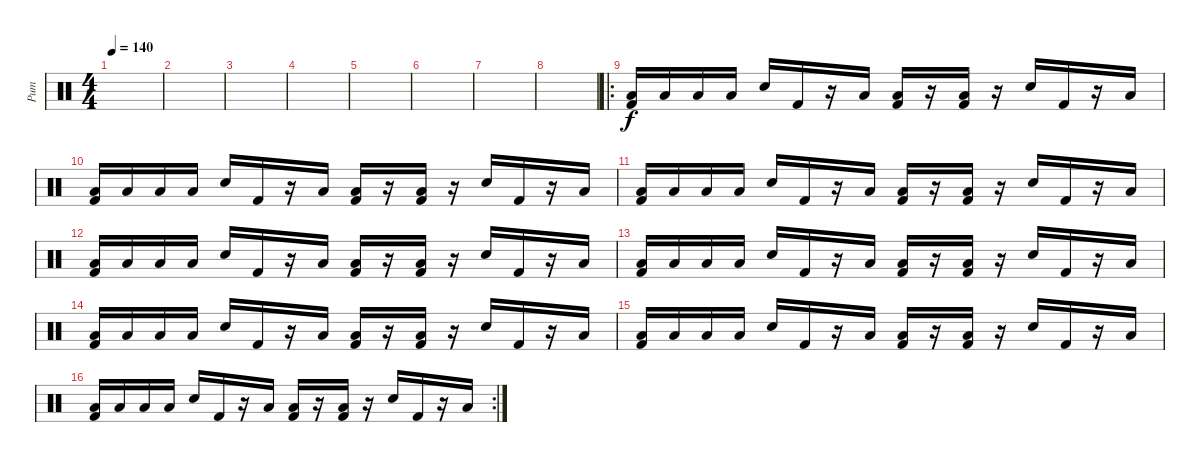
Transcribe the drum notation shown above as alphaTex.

\track ("Рит" "Рит") {instrument percussion}
\staff {score}
\articulation defaults
\ts (4 4)
\tempo 140
\clef neutral
\ks c
|
|
|
|
|
|
|
|
\ro
("Low Floor Tom (hit)" "Kick (hit) 2").16{volume 12} "Low Floor Tom (hit)".16 "Low Floor Tom (hit)".16 "Low Floor Tom (hit)".16 "Snare (hit) 2".16 "Kick (hit) 2".16 r.16 "Low Tom (hit)".16 ("Low Floor Tom (hit)" "Kick (hit) 2").16 r.16 ("Low Floor Tom (hit)" "Kick (hit) 2").16 r.16 "Snare (hit) 2".16 "Kick (hit) 2".16 r.16 "Low Tom (hit)".16 |
("Low Floor Tom (hit)" "Kick (hit) 2").16 "Low Floor Tom (hit)".16 "Low Floor Tom (hit)".16 "Low Floor Tom (hit)".16 "Snare (hit) 2".16 "Kick (hit) 2".16 r.16 "Low Tom (hit)".16 ("Low Floor Tom (hit)" "Kick (hit) 2").16 r.16 ("Low Floor Tom (hit)" "Kick (hit) 2").16 r.16 "Snare (hit) 2".16 "Kick (hit) 2".16 r.16 "Low Tom (hit)".16 |
("Low Floor Tom (hit)" "Kick (hit) 2").16 "Low Floor Tom (hit)".16 "Low Floor Tom (hit)".16 "Low Floor Tom (hit)".16 "Snare (hit) 2".16 "Kick (hit) 2".16 r.16 "Low Tom (hit)".16 ("Low Floor Tom (hit)" "Kick (hit) 2").16 r.16 ("Low Floor Tom (hit)" "Kick (hit) 2").16 r.16 "Snare (hit) 2".16 "Kick (hit) 2".16 r.16 "Low Tom (hit)".16 |
("Low Floor Tom (hit)" "Kick (hit) 2").16 "Low Floor Tom (hit)".16 "Low Floor Tom (hit)".16 "Low Floor Tom (hit)".16 "Snare (hit) 2".16 "Kick (hit) 2".16 r.16 "Low Tom (hit)".16 ("Low Floor Tom (hit)" "Kick (hit) 2").16 r.16 ("Low Floor Tom (hit)" "Kick (hit) 2").16 r.16 "Snare (hit) 2".16 "Kick (hit) 2".16 r.16 "Low Tom (hit)".16 |
("Low Floor Tom (hit)" "Kick (hit) 2").16 "Low Floor Tom (hit)".16 "Low Floor Tom (hit)".16 "Low Floor Tom (hit)".16 "Snare (hit) 2".16 "Kick (hit) 2".16 r.16 "Low Tom (hit)".16 ("Low Floor Tom (hit)" "Kick (hit) 2").16 r.16 ("Low Floor Tom (hit)" "Kick (hit) 2").16 r.16 "Snare (hit) 2".16 "Kick (hit) 2".16 r.16 "Low Tom (hit)".16 |
("Low Floor Tom (hit)" "Kick (hit) 2").16 "Low Floor Tom (hit)".16 "Low Floor Tom (hit)".16 "Low Floor Tom (hit)".16 "Snare (hit) 2".16 "Kick (hit) 2".16 r.16 "Low Tom (hit)".16 ("Low Floor Tom (hit)" "Kick (hit) 2").16 r.16 ("Low Floor Tom (hit)" "Kick (hit) 2").16 r.16 "Snare (hit) 2".16 "Kick (hit) 2".16 r.16 "Low Tom (hit)".16 |
("Low Floor Tom (hit)" "Kick (hit) 2").16 "Low Floor Tom (hit)".16 "Low Floor Tom (hit)".16 "Low Floor Tom (hit)".16 "Snare (hit) 2".16 "Kick (hit) 2".16 r.16 "Low Tom (hit)".16 ("Low Floor Tom (hit)" "Kick (hit) 2").16 r.16 ("Low Floor Tom (hit)" "Kick (hit) 2").16 r.16 "Snare (hit) 2".16 "Kick (hit) 2".16 r.16 "Low Tom (hit)".16 |
\rc 2
("Low Floor Tom (hit)" "Kick (hit) 2").16 "Low Floor Tom (hit)".16 "Low Floor Tom (hit)".16 "Low Floor Tom (hit)".16 "Snare (hit) 2".16 "Kick (hit) 2".16 r.16 "Low Tom (hit)".16 ("Low Floor Tom (hit)" "Kick (hit) 2").16 r.16 ("Low Floor Tom (hit)" "Kick (hit) 2").16 r.16 "Snare (hit) 2".16 "Kick (hit) 2".16 r.16 "Low Tom (hit)".16
